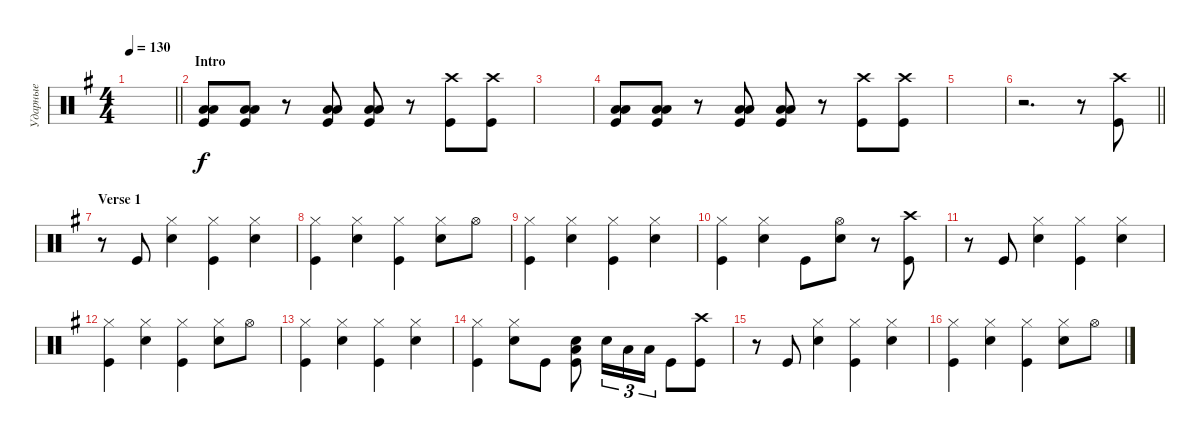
\track ("Ударные" "Ударные") {instrument percussion}
\staff {score}
\articulation defaults
\ts (4 4)
\tempo 130
\clef neutral
\barLineRight lightlight
\ks eminor
|
\section ("" "Intro")
("Low Tom (hit)" "Low Tom (hit)" "Kick (hit)").8{bd 120} ("Kick (hit)" "Low Tom (hit)" "Low Tom (hit)").8{bd 120} r.8 ("Kick (hit)" "Low Tom (hit)" "Low Tom (hit)").8{bd 120} ("Kick (hit)" "Low Tom (hit)" "Low Tom (hit)").8{bd 120} r.8 ("Kick (hit)" "Crash high (hit)").8 ("Kick (hit)" "Crash high (hit)").8 |
|
("Low Tom (hit)" "Low Tom (hit)" "Kick (hit)").8{bd 120} ("Kick (hit)" "Low Tom (hit)" "Low Tom (hit)").8{bd 120} r.8 ("Kick (hit)" "Low Tom (hit)" "Low Tom (hit)").8{bd 120} ("Kick (hit)" "Low Tom (hit)" "Low Tom (hit)").8{bd 120} r.8 ("Kick (hit)" "Crash high (hit)").8 ("Kick (hit)" "Crash high (hit)").8 |
|
\barLineRight lightlight
r.2{d} r.8 ("Kick (hit)" "Crash high (hit)").8 |
\section ("" "Verse 1")
r.8 "Kick (hit)".8 ("Snare (hit) 2" "Hi-Hat (closed)").4 ("Kick (hit)" "Hi-Hat (closed)").4 ("Snare (hit) 2" "Hi-Hat (closed)").4 |
("Kick (hit)" "Hi-Hat (closed)").4 ("Snare (hit) 2" "Hi-Hat (closed)").4 ("Kick (hit)" "Hi-Hat (closed)").4 ("Snare (hit) 2" "Hi-Hat (closed)").8 "Hi-Hat (open)".8 |
("Kick (hit)" "Hi-Hat (closed)").4 ("Snare (hit) 2" "Hi-Hat (closed)").4 ("Kick (hit)" "Hi-Hat (closed)").4 ("Snare (hit) 2" "Hi-Hat (closed)").4 |
("Kick (hit)" "Hi-Hat (closed)").4 ("Snare (hit) 2" "Hi-Hat (closed)").4 "Kick (hit)".8 ("Snare (hit) 2" "Hi-Hat (open)").8 r.8 ("Kick (hit)" "Crash high (hit)").8 |
r.8 "Kick (hit)".8 ("Snare (hit) 2" "Hi-Hat (closed)").4 ("Kick (hit)" "Hi-Hat (closed)").4 ("Snare (hit) 2" "Hi-Hat (closed)").4 |
("Kick (hit)" "Hi-Hat (closed)").4 ("Snare (hit) 2" "Hi-Hat (closed)").4 ("Kick (hit)" "Hi-Hat (closed)").4 ("Snare (hit) 2" "Hi-Hat (closed)").8 "Hi-Hat (open)".8 |
("Kick (hit)" "Hi-Hat (closed)").4 ("Snare (hit) 2" "Hi-Hat (closed)").4 ("Kick (hit)" "Hi-Hat (closed)").4 ("Snare (hit) 2" "Hi-Hat (closed)").4 |
("Kick (hit)" "Hi-Hat (closed)").4 ("Snare (hit) 2" "Hi-Hat (closed)").8 "Kick (hit)".8 ("Kick (hit)" "Snare (hit) 2" "Low Tom (hit)").8{bd 120} "Snare (hit) 2".16{tu (3 2)} "Low Tom (hit)".16{tu (3 2)} "Low Tom (hit)".16{tu (3 2)} "Kick (hit)".8 ("Kick (hit)" "Crash high (hit)").8 |
r.8 "Kick (hit)".8 ("Snare (hit) 2" "Hi-Hat (closed)").4 ("Kick (hit)" "Hi-Hat (closed)").4 ("Snare (hit) 2" "Hi-Hat (closed)").4 |
("Kick (hit)" "Hi-Hat (closed)").4 ("Snare (hit) 2" "Hi-Hat (closed)").4 ("Kick (hit)" "Hi-Hat (closed)").4 ("Snare (hit) 2" "Hi-Hat (closed)").8 "Hi-Hat (open)".8
